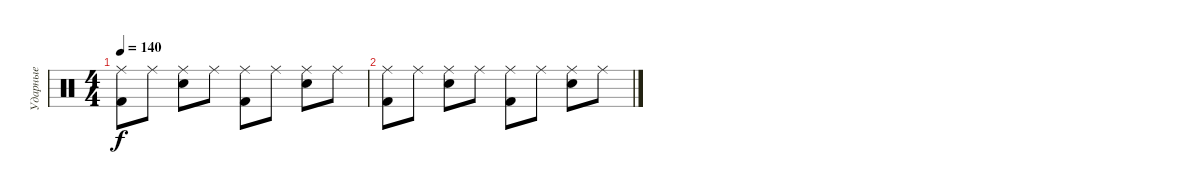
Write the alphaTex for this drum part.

\track ("Ударные" "Ударные") {instrument percussion}
\staff {score}
\articulation defaults
\ts (4 4)
\tempo 140
\clef neutral
\ks c
("Ride (middle)" "Kick (hit) 2").8{dy f} "Ride (middle)".8 ("Ride (middle)" "Electric Snare (hit)").8 "Ride (middle)".8 ("Ride (middle)" "Kick (hit) 2").8 "Ride (middle)".8 ("Ride (middle)" "Electric Snare (hit)").8 "Ride (middle)".8 |
("Ride (middle)" "Kick (hit) 2").8 "Ride (middle)".8 ("Ride (middle)" "Electric Snare (hit)").8 "Ride (middle)".8 ("Ride (middle)" "Kick (hit) 2").8 "Ride (middle)".8 ("Ride (middle)" "Electric Snare (hit)").8 "Ride (middle)".8
